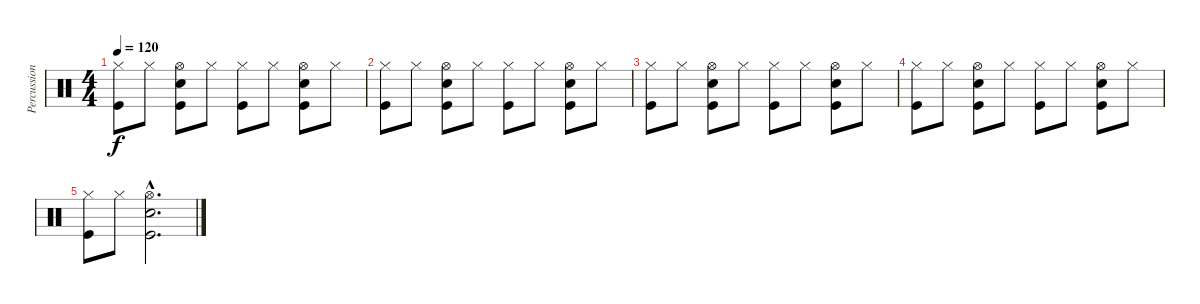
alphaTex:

\track ("Percussions" "Percussion") {instrument percussion}
\staff {score}
\articulation defaults
\ts (4 4)
\tempo 120
\clef neutral
\ks c
("Hi-Hat (closed)" "Kick (hit)").8{dy f} "Hi-Hat (closed)".8 ("Snare (hit) 2" "Hi-Hat (open)" "Kick (hit)").8 "Hi-Hat (closed)".8 ("Hi-Hat (closed)" "Kick (hit)").8 "Hi-Hat (closed)".8 ("Snare (hit) 2" "Hi-Hat (open)" "Kick (hit)").8 "Hi-Hat (closed)".8 |
("Hi-Hat (closed)" "Kick (hit)").8 "Hi-Hat (closed)".8 ("Snare (hit) 2" "Hi-Hat (open)" "Kick (hit)").8 "Hi-Hat (closed)".8 ("Hi-Hat (closed)" "Kick (hit)").8 "Hi-Hat (closed)".8 ("Snare (hit) 2" "Hi-Hat (open)" "Kick (hit)").8 "Hi-Hat (closed)".8 |
("Hi-Hat (closed)" "Kick (hit)").8 "Hi-Hat (closed)".8 ("Snare (hit) 2" "Hi-Hat (open)" "Kick (hit)").8 "Hi-Hat (closed)".8 ("Hi-Hat (closed)" "Kick (hit)").8 "Hi-Hat (closed)".8 ("Snare (hit) 2" "Hi-Hat (open)" "Kick (hit)").8 "Hi-Hat (closed)".8 |
("Hi-Hat (closed)" "Kick (hit)").8 "Hi-Hat (closed)".8 ("Snare (hit) 2" "Hi-Hat (open)" "Kick (hit)").8 "Hi-Hat (closed)".8 ("Hi-Hat (closed)" "Kick (hit)").8 "Hi-Hat (closed)".8 ("Snare (hit) 2" "Hi-Hat (open)" "Kick (hit)").8 "Hi-Hat (closed)".8 |
("Hi-Hat (closed)" "Kick (hit)").8 "Hi-Hat (closed)".8 ("Snare (hit) 2"{hac} "Hi-Hat (open)"{hac} "Kick (hit)"{hac}).2{d}
